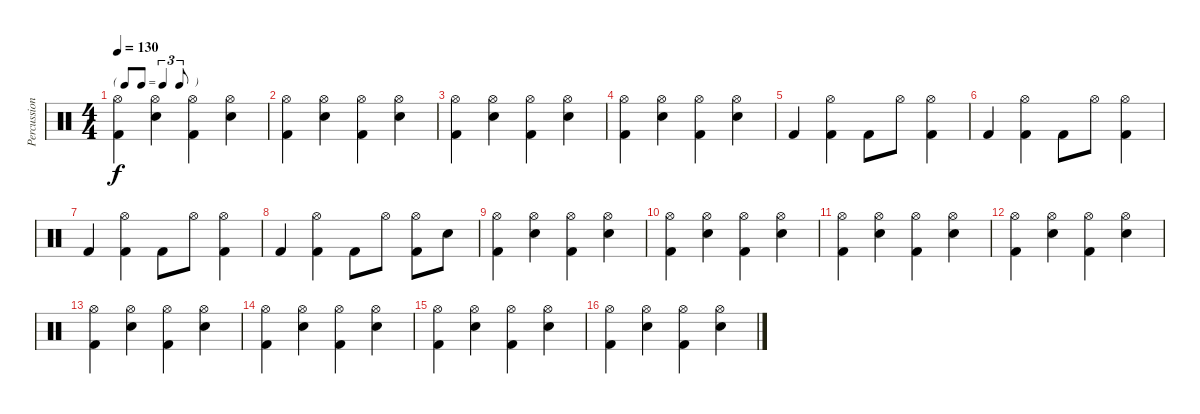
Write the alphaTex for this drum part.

\track ("Percussion" "Percussion") {instrument percussion}
\staff {score}
\articulation defaults
\ts (4 4)
\tf triplet8th
\tempo 130
\clef neutral
\ks c
("Hi-Hat (open)" "Kick (hit) 2").4{dy f} ("Hi-Hat (open)" "Hand Clap (hit)").4 ("Hi-Hat (open)" "Kick (hit) 2").4 ("Hi-Hat (open)" "Hand Clap (hit)").4 |
("Hi-Hat (open)" "Kick (hit) 2").4 ("Hi-Hat (open)" "Hand Clap (hit)").4 ("Hi-Hat (open)" "Kick (hit) 2").4 ("Hi-Hat (open)" "Hand Clap (hit)").4 |
("Hi-Hat (open)" "Kick (hit) 2").4 ("Hi-Hat (open)" "Hand Clap (hit)").4 ("Hi-Hat (open)" "Kick (hit) 2").4 ("Hi-Hat (open)" "Hand Clap (hit)").4 |
("Hi-Hat (open)" "Kick (hit) 2").4 ("Hi-Hat (open)" "Hand Clap (hit)").4 ("Hi-Hat (open)" "Kick (hit) 2").4 ("Hi-Hat (open)" "Hand Clap (hit)").4 |
"Kick (hit) 2".4 ("Hi-Hat (open)" "Kick (hit) 2").4 "Kick (hit) 2".8 "Hi-Hat (open)".8 ("Hi-Hat (open)" "Kick (hit) 2").4 |
"Kick (hit) 2".4 ("Hi-Hat (open)" "Kick (hit) 2").4 "Kick (hit) 2".8 "Hi-Hat (open)".8 ("Hi-Hat (open)" "Kick (hit) 2").4 |
"Kick (hit) 2".4 ("Hi-Hat (open)" "Kick (hit) 2").4 "Kick (hit) 2".8 "Hi-Hat (open)".8 ("Hi-Hat (open)" "Kick (hit) 2").4 |
"Kick (hit) 2".4 ("Hi-Hat (open)" "Kick (hit) 2").4 "Kick (hit) 2".8 "Hi-Hat (open)".8 ("Hi-Hat (open)" "Kick (hit) 2").8 "Snare (hit) 2".8 |
("Hi-Hat (open)" "Kick (hit) 2").4 ("Hi-Hat (open)" "Hand Clap (hit)").4 ("Hi-Hat (open)" "Kick (hit) 2").4 ("Hi-Hat (open)" "Hand Clap (hit)").4 |
("Hi-Hat (open)" "Kick (hit) 2").4 ("Hi-Hat (open)" "Hand Clap (hit)").4 ("Hi-Hat (open)" "Kick (hit) 2").4 ("Hi-Hat (open)" "Hand Clap (hit)").4 |
("Hi-Hat (open)" "Kick (hit) 2").4 ("Hi-Hat (open)" "Hand Clap (hit)").4 ("Hi-Hat (open)" "Kick (hit) 2").4 ("Hi-Hat (open)" "Hand Clap (hit)").4 |
("Hi-Hat (open)" "Kick (hit) 2").4 ("Hi-Hat (open)" "Hand Clap (hit)").4 ("Hi-Hat (open)" "Kick (hit) 2").4 ("Hi-Hat (open)" "Hand Clap (hit)").4 |
("Hi-Hat (open)" "Kick (hit) 2").4 ("Hi-Hat (open)" "Hand Clap (hit)").4 ("Hi-Hat (open)" "Kick (hit) 2").4 ("Hi-Hat (open)" "Hand Clap (hit)").4 |
("Hi-Hat (open)" "Kick (hit) 2").4 ("Hi-Hat (open)" "Hand Clap (hit)").4 ("Hi-Hat (open)" "Kick (hit) 2").4 ("Hi-Hat (open)" "Hand Clap (hit)").4 |
("Hi-Hat (open)" "Kick (hit) 2").4 ("Hi-Hat (open)" "Hand Clap (hit)").4 ("Hi-Hat (open)" "Kick (hit) 2").4 ("Hi-Hat (open)" "Hand Clap (hit)").4 |
("Hi-Hat (open)" "Kick (hit) 2").4 ("Hi-Hat (open)" "Hand Clap (hit)").4 ("Hi-Hat (open)" "Kick (hit) 2").4 ("Hi-Hat (open)" "Hand Clap (hit)").4
